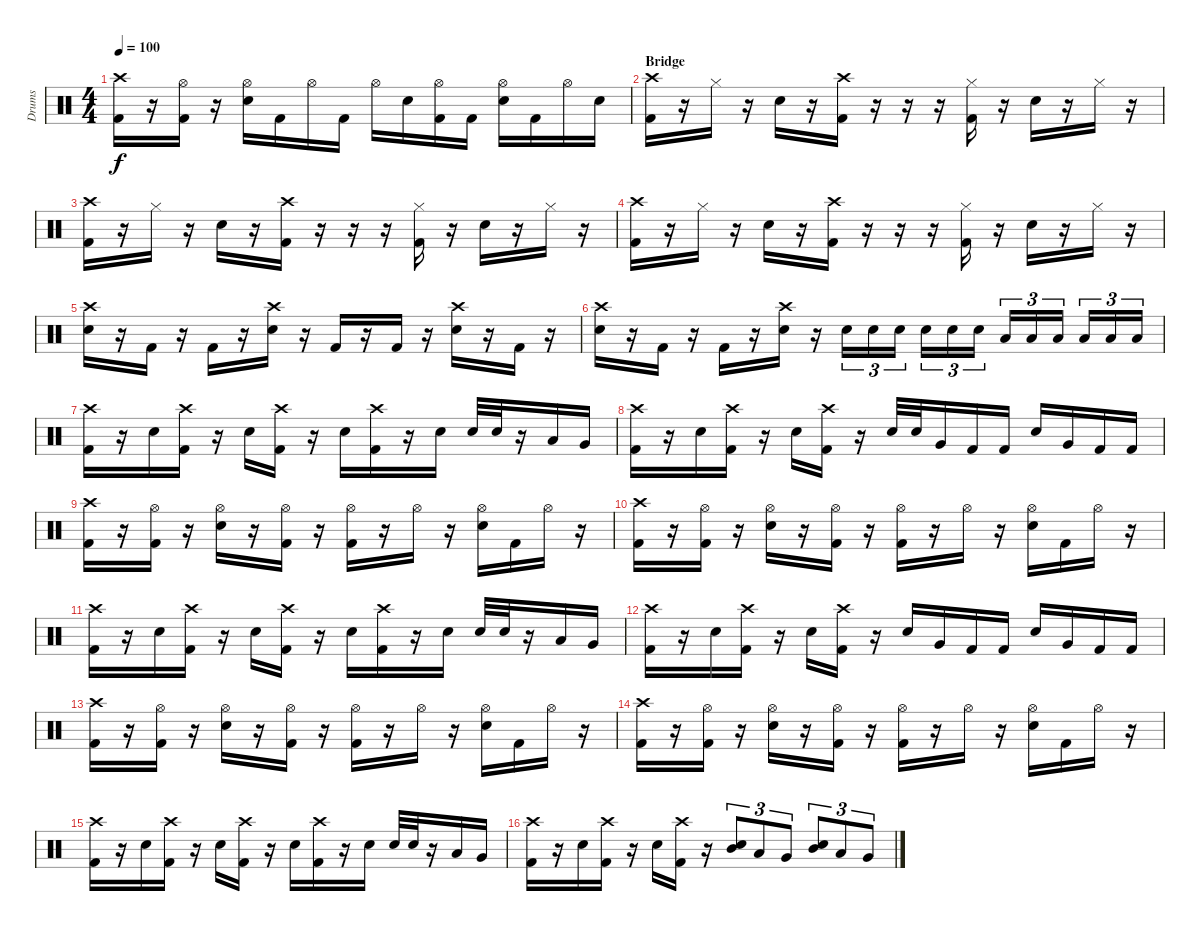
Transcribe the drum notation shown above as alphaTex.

\track ("Drums" "Drums") {instrument percussion}
\staff {score}
\articulation defaults
\ts (4 4)
\tempo 100
\clef neutral
\ks c
("Crash high (hit)" "Kick (hit) 2").16{dy f} r.16 ("Hi-Hat (open)" "Kick (hit) 2").16 r.16 ("Hi-Hat (open)" "Electric Snare (hit)").16 "Kick (hit) 2".16 "Hi-Hat (open)".16 "Kick (hit) 2".16 "Hi-Hat (open)".16 "Electric Snare (hit)".16 ("Hi-Hat (open)" "Kick (hit) 2").16 "Kick (hit) 2".16 ("Hi-Hat (open)" "Electric Snare (hit)").16 "Kick (hit) 2".16 "Hi-Hat (open)".16 "Electric Snare (hit)".16 |
\section ("" "Bridge")
("Crash high (hit)" "Kick (hit) 2").16 r.16 "Hi-Hat (closed)".16 r.16 "Electric Snare (hit)".16 r.16 ("Crash high (hit)" "Kick (hit) 2").16 r.16 r.16 r.16 ("Hi-Hat (closed)" "Kick (hit) 2").16 r.16 "Electric Snare (hit)".16 r.16 "Hi-Hat (closed)".16 r.16 |
("Crash high (hit)" "Kick (hit) 2").16 r.16 "Hi-Hat (closed)".16 r.16 "Electric Snare (hit)".16 r.16 ("Crash high (hit)" "Kick (hit) 2").16 r.16 r.16 r.16 ("Hi-Hat (closed)" "Kick (hit) 2").16 r.16 "Electric Snare (hit)".16 r.16 "Hi-Hat (closed)".16 r.16 |
("Crash high (hit)" "Kick (hit) 2").16 r.16 "Hi-Hat (closed)".16 r.16 "Electric Snare (hit)".16 r.16 ("Crash high (hit)" "Kick (hit) 2").16 r.16 r.16 r.16 ("Hi-Hat (closed)" "Kick (hit) 2").16 r.16 "Electric Snare (hit)".16 r.16 "Hi-Hat (closed)".16 r.16 |
("Crash high (hit)" "Electric Snare (hit)").16 r.16 "Kick (hit) 2".16 r.16 "Kick (hit) 2".16 r.16 ("Crash high (hit)" "Electric Snare (hit)").16 r.16 "Kick (hit) 2".16 r.16 "Kick (hit) 2".16 r.16 ("Crash high (hit)" "Electric Snare (hit)").16 r.16 "Kick (hit) 2".16 r.16 |
("Crash high (hit)" "Electric Snare (hit)").16 r.16 "Kick (hit) 2".16 r.16 "Kick (hit) 2".16 r.16 ("Crash high (hit)" "Electric Snare (hit)").16 r.16 "Electric Snare (hit)".16{tu (3 2)} "Electric Snare (hit)".16{tu (3 2)} "Electric Snare (hit)".16{tu (3 2)} "Electric Snare (hit)".16{tu (3 2)} "Electric Snare (hit)".16{tu (3 2)} "Electric Snare (hit)".16{tu (3 2)} "Low Tom (hit)".16{tu (3 2)} "Low Tom (hit)".16{tu (3 2)} "Low Tom (hit)".16{tu (3 2)} "Low Tom (hit)".16{tu (3 2)} "Low Tom (hit)".16{tu (3 2)} "Low Tom (hit)".16{tu (3 2)} |
("Crash high (hit)" "Kick (hit) 2").16 r.16 "Electric Snare (hit)".16 ("Crash high (hit)" "Kick (hit) 2").16 r.16 "Electric Snare (hit)".16 ("Crash high (hit)" "Kick (hit) 2").16 r.16 "Electric Snare (hit)".16 ("Crash high (hit)" "Kick (hit) 2").16 r.16 "Electric Snare (hit)".16 "Electric Snare (hit)".32 "Electric Snare (hit)".32 r.16 "Low Tom (hit)".16 "Very Low Tom (hit)".16 |
("Crash high (hit)" "Kick (hit) 2").16 r.16 "Electric Snare (hit)".16 ("Crash high (hit)" "Kick (hit) 2").16 r.16 "Electric Snare (hit)".16 ("Crash high (hit)" "Kick (hit) 2").16 r.16 "Electric Snare (hit)".32 "Electric Snare (hit)".32 "Very Low Tom (hit)".16 "Kick (hit) 2".16 "Kick (hit) 2".16 "Electric Snare (hit)".16 "Very Low Tom (hit)".16 "Kick (hit) 2".16 "Kick (hit) 2".16 |
("Crash high (hit)" "Kick (hit) 2").16 r.16 ("Hi-Hat (open)" "Kick (hit) 2").16 r.16 ("Hi-Hat (open)" "Electric Snare (hit)").16 r.16 ("Hi-Hat (open)" "Kick (hit) 2").16 r.16 ("Hi-Hat (open)" "Kick (hit) 2").16 r.16 "Hi-Hat (open)".16 r.16 ("Hi-Hat (open)" "Electric Snare (hit)").16 "Kick (hit) 2".16 "Hi-Hat (open)".16 r.16 |
("Crash high (hit)" "Kick (hit) 2").16 r.16 ("Hi-Hat (open)" "Kick (hit) 2").16 r.16 ("Hi-Hat (open)" "Electric Snare (hit)").16 r.16 ("Hi-Hat (open)" "Kick (hit) 2").16 r.16 ("Hi-Hat (open)" "Kick (hit) 2").16 r.16 "Hi-Hat (open)".16 r.16 ("Hi-Hat (open)" "Electric Snare (hit)").16 "Kick (hit) 2".16 "Hi-Hat (open)".16 r.16 |
("Crash high (hit)" "Kick (hit) 2").16 r.16 "Electric Snare (hit)".16 ("Crash high (hit)" "Kick (hit) 2").16 r.16 "Electric Snare (hit)".16 ("Crash high (hit)" "Kick (hit) 2").16 r.16 "Electric Snare (hit)".16 ("Crash high (hit)" "Kick (hit) 2").16 r.16 "Electric Snare (hit)".16 "Electric Snare (hit)".32 "Electric Snare (hit)".32 r.16 "Low Tom (hit)".16 "Very Low Tom (hit)".16 |
("Crash high (hit)" "Kick (hit) 2").16 r.16 "Electric Snare (hit)".16 ("Crash high (hit)" "Kick (hit) 2").16 r.16 "Electric Snare (hit)".16 ("Crash high (hit)" "Kick (hit) 2").16 r.16 "Electric Snare (hit)".16 "Very Low Tom (hit)".16 "Kick (hit) 2".16 "Kick (hit) 2".16 "Electric Snare (hit)".16 "Very Low Tom (hit)".16 "Kick (hit) 2".16 "Kick (hit) 2".16 |
("Crash high (hit)" "Kick (hit) 2").16 r.16 ("Hi-Hat (open)" "Kick (hit) 2").16 r.16 ("Hi-Hat (open)" "Electric Snare (hit)").16 r.16 ("Hi-Hat (open)" "Kick (hit) 2").16 r.16 ("Hi-Hat (open)" "Kick (hit) 2").16 r.16 "Hi-Hat (open)".16 r.16 ("Hi-Hat (open)" "Electric Snare (hit)").16 "Kick (hit) 2".16 "Hi-Hat (open)".16 r.16 |
("Crash high (hit)" "Kick (hit) 2").16 r.16 ("Hi-Hat (open)" "Kick (hit) 2").16 r.16 ("Hi-Hat (open)" "Electric Snare (hit)").16 r.16 ("Hi-Hat (open)" "Kick (hit) 2").16 r.16 ("Hi-Hat (open)" "Kick (hit) 2").16 r.16 "Hi-Hat (open)".16 r.16 ("Hi-Hat (open)" "Electric Snare (hit)").16 "Kick (hit) 2".16 "Hi-Hat (open)".16 r.16 |
("Crash high (hit)" "Kick (hit) 2").16 r.16 "Electric Snare (hit)".16 ("Crash high (hit)" "Kick (hit) 2").16 r.16 "Electric Snare (hit)".16 ("Crash high (hit)" "Kick (hit) 2").16 r.16 "Electric Snare (hit)".16 ("Crash high (hit)" "Kick (hit) 2").16 r.16 "Electric Snare (hit)".16 "Electric Snare (hit)".32 "Electric Snare (hit)".32 r.16 "Low Tom (hit)".16 "Very Low Tom (hit)".16 |
("Crash high (hit)" "Kick (hit) 2").16 r.16 "Electric Snare (hit)".16 ("Crash high (hit)" "Kick (hit) 2").16 r.16 "Electric Snare (hit)".16 ("Crash high (hit)" "Kick (hit) 2").16 r.16 ("Mid Tom (hit)" "Electric Snare (hit)").8{tu (3 2)} "Low Tom (hit)".8{tu (3 2)} "Very Low Tom (hit)".8{tu (3 2)} ("Mid Tom (hit)" "Electric Snare (hit)").8{tu (3 2)} "Low Tom (hit)".8{tu (3 2)} "Very Low Tom (hit)".8{tu (3 2)}
